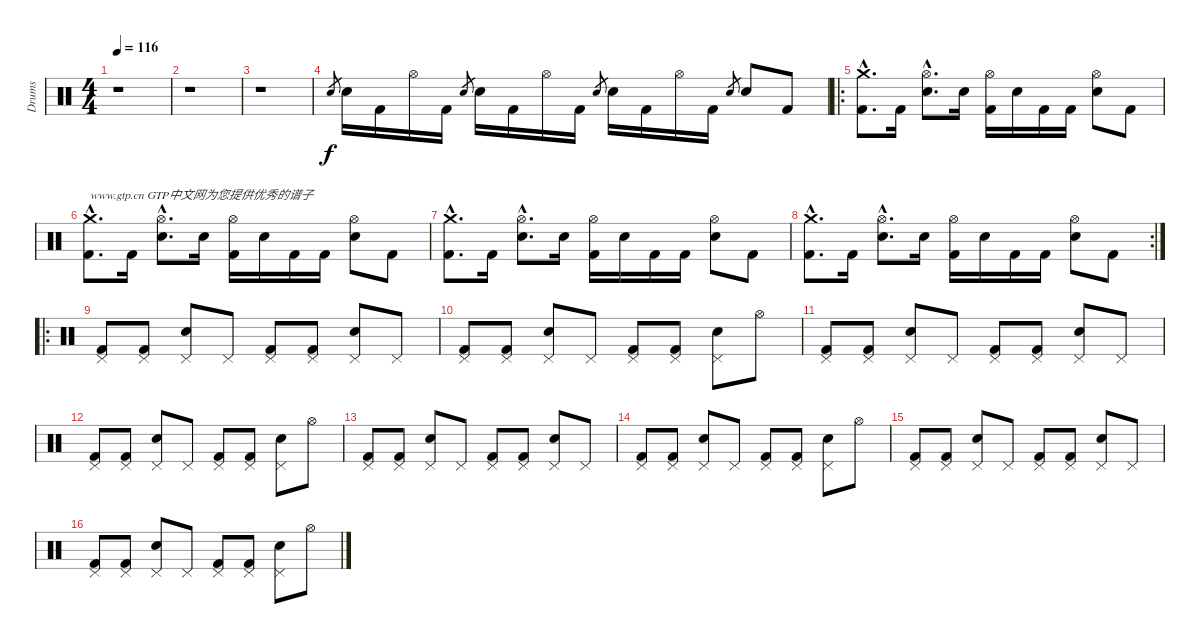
\track ("Drums" "Drums") {instrument percussion}
\staff {score}
\articulation defaults
\ts (4 4)
\tempo 116
\clef neutral
\ks c
r.1{dy f} |
r.1 |
r.1 |
"Electric Snare (hit)".8{gr} "Electric Snare (hit)".16 "Kick (hit) 2".16 "Hi-Hat (open)".16 "Kick (hit) 2".16 "Electric Snare (hit)".8{gr} "Electric Snare (hit)".16 "Kick (hit) 2".16 "Hi-Hat (open)".16 "Kick (hit) 2".16 "Electric Snare (hit)".8{gr} "Electric Snare (hit)".16 "Kick (hit) 2".16 "Hi-Hat (open)".16 "Kick (hit) 2".16 "Electric Snare (hit)".8{gr} "Electric Snare (hit)".8 "Kick (hit) 2".8 |
\ro
("Crash medium (hit)"{hac} "Kick (hit) 2"{hac}).8{d} "Kick (hit) 2".16 ("Hi-Hat (open)"{hac} "Electric Snare (hit)"{hac}).8{d} "Electric Snare (hit)".16 ("Hi-Hat (open)" "Kick (hit) 2").16 "Electric Snare (hit)".16 "Kick (hit) 2".16 "Kick (hit) 2".16 ("Hi-Hat (open)" "Electric Snare (hit)").8 "Kick (hit) 2".8 |
("Crash medium (hit)"{hac} "Kick (hit) 2"{hac}).8{d txt "www.gtp.cn GTP中文网为您提供优秀的谱子"} "Kick (hit) 2".16 ("Hi-Hat (open)"{hac} "Electric Snare (hit)"{hac}).8{d} "Electric Snare (hit)".16 ("Hi-Hat (open)" "Kick (hit) 2").16 "Electric Snare (hit)".16 "Kick (hit) 2".16 "Kick (hit) 2".16 ("Hi-Hat (open)" "Electric Snare (hit)").8 "Kick (hit) 2".8 |
("Crash medium (hit)"{hac} "Kick (hit) 2"{hac}).8{d} "Kick (hit) 2".16 ("Hi-Hat (open)"{hac} "Electric Snare (hit)"{hac}).8{d} "Electric Snare (hit)".16 ("Hi-Hat (open)" "Kick (hit) 2").16 "Electric Snare (hit)".16 "Kick (hit) 2".16 "Kick (hit) 2".16 ("Hi-Hat (open)" "Electric Snare (hit)").8 "Kick (hit) 2".8 |
\rc 2
("Crash medium (hit)"{hac} "Kick (hit) 2"{hac}).8{d} "Kick (hit) 2".16 ("Hi-Hat (open)"{hac} "Electric Snare (hit)"{hac}).8{d} "Electric Snare (hit)".16 ("Hi-Hat (open)" "Kick (hit) 2").16 "Electric Snare (hit)".16 "Kick (hit) 2".16 "Kick (hit) 2".16 ("Hi-Hat (open)" "Electric Snare (hit)").8 "Kick (hit) 2".8 |
\ro
("Pedal Hi-Hat (hit)" "Kick (hit) 2").8 ("Pedal Hi-Hat (hit)" "Kick (hit) 2").8 ("Pedal Hi-Hat (hit)" "Electric Snare (hit)").8 "Pedal Hi-Hat (hit)".8 ("Pedal Hi-Hat (hit)" "Kick (hit) 2").8 ("Pedal Hi-Hat (hit)" "Kick (hit) 2").8 ("Pedal Hi-Hat (hit)" "Electric Snare (hit)").8 "Pedal Hi-Hat (hit)".8 |
("Pedal Hi-Hat (hit)" "Kick (hit) 2").8 ("Pedal Hi-Hat (hit)" "Kick (hit) 2").8 ("Pedal Hi-Hat (hit)" "Electric Snare (hit)").8 "Pedal Hi-Hat (hit)".8 ("Pedal Hi-Hat (hit)" "Kick (hit) 2").8 ("Pedal Hi-Hat (hit)" "Kick (hit) 2").8 ("Pedal Hi-Hat (hit)" "Electric Snare (hit)").8 "Hi-Hat (open)".8 |
("Pedal Hi-Hat (hit)" "Kick (hit) 2").8 ("Pedal Hi-Hat (hit)" "Kick (hit) 2").8 ("Pedal Hi-Hat (hit)" "Electric Snare (hit)").8 "Pedal Hi-Hat (hit)".8 ("Pedal Hi-Hat (hit)" "Kick (hit) 2").8 ("Pedal Hi-Hat (hit)" "Kick (hit) 2").8 ("Pedal Hi-Hat (hit)" "Electric Snare (hit)").8 "Pedal Hi-Hat (hit)".8 |
("Pedal Hi-Hat (hit)" "Kick (hit) 2").8 ("Pedal Hi-Hat (hit)" "Kick (hit) 2").8 ("Pedal Hi-Hat (hit)" "Electric Snare (hit)").8 "Pedal Hi-Hat (hit)".8 ("Pedal Hi-Hat (hit)" "Kick (hit) 2").8 ("Pedal Hi-Hat (hit)" "Kick (hit) 2").8 ("Pedal Hi-Hat (hit)" "Electric Snare (hit)").8 "Hi-Hat (open)".8 |
("Pedal Hi-Hat (hit)" "Kick (hit) 2").8 ("Pedal Hi-Hat (hit)" "Kick (hit) 2").8 ("Pedal Hi-Hat (hit)" "Electric Snare (hit)").8 "Pedal Hi-Hat (hit)".8 ("Pedal Hi-Hat (hit)" "Kick (hit) 2").8 ("Pedal Hi-Hat (hit)" "Kick (hit) 2").8 ("Pedal Hi-Hat (hit)" "Electric Snare (hit)").8 "Pedal Hi-Hat (hit)".8 |
("Pedal Hi-Hat (hit)" "Kick (hit) 2").8 ("Pedal Hi-Hat (hit)" "Kick (hit) 2").8 ("Pedal Hi-Hat (hit)" "Electric Snare (hit)").8 "Pedal Hi-Hat (hit)".8 ("Pedal Hi-Hat (hit)" "Kick (hit) 2").8 ("Pedal Hi-Hat (hit)" "Kick (hit) 2").8 ("Pedal Hi-Hat (hit)" "Electric Snare (hit)").8 "Hi-Hat (open)".8 |
("Pedal Hi-Hat (hit)" "Kick (hit) 2").8 ("Pedal Hi-Hat (hit)" "Kick (hit) 2").8 ("Pedal Hi-Hat (hit)" "Electric Snare (hit)").8 "Pedal Hi-Hat (hit)".8 ("Pedal Hi-Hat (hit)" "Kick (hit) 2").8 ("Pedal Hi-Hat (hit)" "Kick (hit) 2").8 ("Pedal Hi-Hat (hit)" "Electric Snare (hit)").8 "Pedal Hi-Hat (hit)".8 |
("Pedal Hi-Hat (hit)" "Kick (hit) 2").8 ("Pedal Hi-Hat (hit)" "Kick (hit) 2").8 ("Pedal Hi-Hat (hit)" "Electric Snare (hit)").8 "Pedal Hi-Hat (hit)".8 ("Pedal Hi-Hat (hit)" "Kick (hit) 2").8 ("Pedal Hi-Hat (hit)" "Kick (hit) 2").8 ("Pedal Hi-Hat (hit)" "Electric Snare (hit)").8 "Hi-Hat (open)".8
